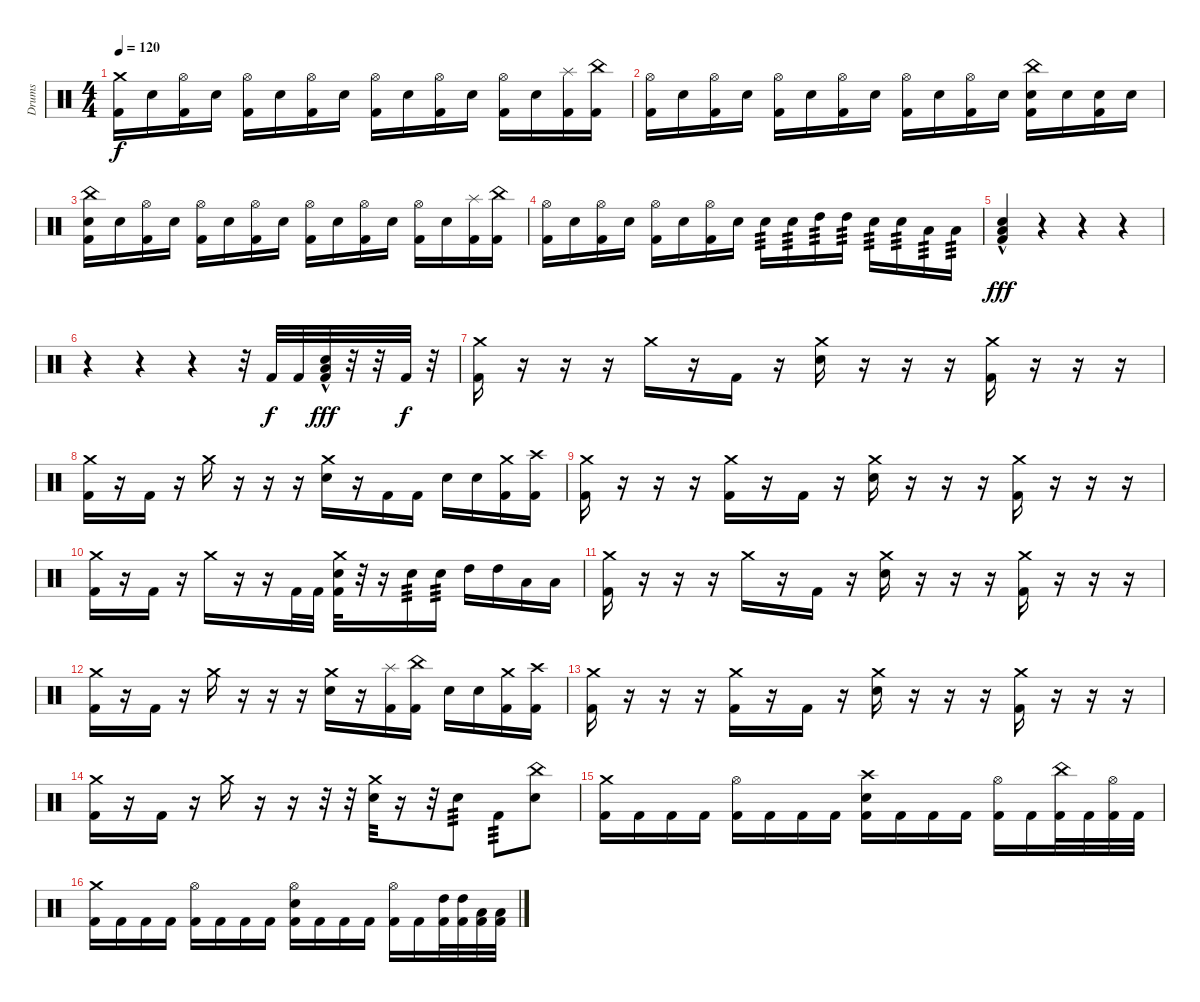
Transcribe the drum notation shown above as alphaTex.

\track ("Drums" "Drums") {instrument percussion}
\staff {score}
\articulation defaults
\ts (4 4)
\tempo 120
\clef neutral
\ks c
("Crash medium (hit)" "Kick (hit) 2").16{dy f} "Electric Snare (hit)".16 ("Hi-Hat (open)" "Kick (hit) 2").16 "Electric Snare (hit)".16 ("Hi-Hat (open)" "Kick (hit) 2").16 "Electric Snare (hit)".16 ("Hi-Hat (open)" "Kick (hit) 2").16 "Electric Snare (hit)".16 ("Hi-Hat (open)" "Kick (hit) 2").16 "Electric Snare (hit)".16 ("Hi-Hat (open)" "Kick (hit) 2").16 "Electric Snare (hit)".16 ("Hi-Hat (open)" "Kick (hit) 2").16 "Electric Snare (hit)".16 ("Splash (hit)" "Kick (hit) 2").16 ("China (hit)" "Kick (hit) 2").16 |
("Hi-Hat (open)" "Kick (hit) 2").16 "Electric Snare (hit)".16 ("Hi-Hat (open)" "Kick (hit) 2").16 "Electric Snare (hit)".16 ("Hi-Hat (open)" "Kick (hit) 2").16 "Electric Snare (hit)".16 ("Hi-Hat (open)" "Kick (hit) 2").16 "Electric Snare (hit)".16 ("Hi-Hat (open)" "Kick (hit) 2").16 "Electric Snare (hit)".16 ("Hi-Hat (open)" "Kick (hit) 2").16 "Electric Snare (hit)".16 ("China (hit)" "Electric Snare (hit)" "Kick (hit) 2").16 "Electric Snare (hit)".16 ("Electric Snare (hit)" "Kick (hit) 2").16 "Electric Snare (hit)".16 |
("China (hit)" "Electric Snare (hit)" "Kick (hit) 2").16 "Electric Snare (hit)".16 ("Hi-Hat (open)" "Kick (hit) 2").16 "Electric Snare (hit)".16 ("Hi-Hat (open)" "Kick (hit) 2").16 "Electric Snare (hit)".16 ("Hi-Hat (open)" "Kick (hit) 2").16 "Electric Snare (hit)".16 ("Hi-Hat (open)" "Kick (hit) 2").16 "Electric Snare (hit)".16 ("Hi-Hat (open)" "Kick (hit) 2").16 "Electric Snare (hit)".16 ("Hi-Hat (open)" "Kick (hit) 2").16 "Electric Snare (hit)".16 ("Splash (hit)" "Kick (hit) 2").16 ("China (hit)" "Kick (hit) 2").16 |
("Hi-Hat (open)" "Kick (hit) 2").16 "Electric Snare (hit)".16 ("Hi-Hat (open)" "Kick (hit) 2").16 "Electric Snare (hit)".16 ("Hi-Hat (open)" "Kick (hit) 2").16 "Electric Snare (hit)".16 ("Hi-Hat (open)" "Kick (hit) 2").16 "Electric Snare (hit)".16 "Electric Snare (hit)".16{tp 3} "Electric Snare (hit)".16{tp 3} "High Tom (hit)".16{tp 3} "High Tom (hit)".16{tp 3} "Electric Snare (hit)".16{tp 3} "Electric Snare (hit)".16{tp 3} "Low Tom (hit)".16{tp 3} "Low Tom (hit)".16{tp 3} |
("Electric Snare (hit)"{hac} "Low Tom (hit)"{hac} "Kick (hit) 2"{hac}).4{dy fff} r.4 r.4 r.4 |
r.4 r.4 r.4 r.32 "Kick (hit) 2".32{dy f} "Kick (hit) 2".32 ("Electric Snare (hit)"{hac} "Low Tom (hit)"{hac} "Kick (hit) 2"{hac}).32{dy fff} r.32 r.32 "Kick (hit) 2".32{dy f} r.32 |
("Crash medium (hit)" "Kick (hit) 2").16 r.16 r.16 r.16 "Crash medium (hit)".16 r.16 "Kick (hit) 2".16 r.16 ("Crash medium (hit)" "Electric Snare (hit)").16 r.16 r.16 r.16 ("Crash medium (hit)" "Kick (hit) 2").16 r.16 r.16 r.16 |
("Crash medium (hit)" "Kick (hit) 2").16 r.16 "Kick (hit) 2".16 r.16 "Crash medium (hit)".16 r.16 r.16 r.16 ("Crash medium (hit)" "Electric Snare (hit)").16 r.16 "Kick (hit) 2".16 "Kick (hit) 2".16 "Electric Snare (hit)".16 "Electric Snare (hit)".16 ("Crash medium (hit)" "Kick (hit) 2").16 ("Crash high (hit)" "Kick (hit) 2").16 |
("Crash medium (hit)" "Kick (hit) 2").16 r.16 r.16 r.16 ("Crash medium (hit)" "Kick (hit) 2").16 r.16 "Kick (hit) 2".16 r.16 ("Crash medium (hit)" "Electric Snare (hit)").16 r.16 r.16 r.16 ("Crash medium (hit)" "Kick (hit) 2").16 r.16 r.16 r.16 |
("Crash medium (hit)" "Kick (hit) 2").16 r.16 "Kick (hit) 2".16 r.16 "Crash medium (hit)".16 r.16 r.16 "Kick (hit) 2".32 "Kick (hit) 2".32 ("Crash medium (hit)" "Electric Snare (hit)" "Kick (hit) 2").32 r.32 r.16 "Electric Snare (hit)".16{tp 3} "Electric Snare (hit)".16{tp 3} "High Tom (hit)".16 "High Tom (hit)".16 "Low Tom (hit)".16 "Low Tom (hit)".16 |
("Crash medium (hit)" "Kick (hit) 2").16 r.16 r.16 r.16 "Crash medium (hit)".16 r.16 "Kick (hit) 2".16 r.16 ("Crash medium (hit)" "Electric Snare (hit)").16 r.16 r.16 r.16 ("Crash medium (hit)" "Kick (hit) 2").16 r.16 r.16 r.16 |
("Crash medium (hit)" "Kick (hit) 2").16 r.16 "Kick (hit) 2".16 r.16 "Crash medium (hit)".16 r.16 r.16 r.16 ("Crash medium (hit)" "Electric Snare (hit)").16 r.16 ("Splash (hit)" "Kick (hit) 2").16 ("China (hit)" "Kick (hit) 2").16 "Electric Snare (hit)".16 "Electric Snare (hit)".16 ("Crash medium (hit)" "Kick (hit) 2").16 ("Crash high (hit)" "Kick (hit) 2").16 |
("Crash medium (hit)" "Kick (hit) 2").16 r.16 r.16 r.16 ("Crash medium (hit)" "Kick (hit) 2").16 r.16 "Kick (hit) 2".16 r.16 ("Crash medium (hit)" "Electric Snare (hit)").16 r.16 r.16 r.16 ("Crash medium (hit)" "Kick (hit) 2").16 r.16 r.16 r.16 |
("Crash medium (hit)" "Kick (hit) 2").16 r.16 "Kick (hit) 2".16 r.16 "Crash medium (hit)".16 r.16 r.16 r.32 r.32 ("Crash medium (hit)" "Electric Snare (hit)").32 r.16 r.32 "Electric Snare (hit)".8{tp 3} "Kick (hit) 2".8{tp 3} ("China (hit)" "Electric Snare (hit)").8 |
("Crash medium (hit)" "Kick (hit) 2").16 "Kick (hit) 2".16 "Kick (hit) 2".16 "Kick (hit) 2".16 ("Hi-Hat (open)" "Kick (hit) 2").16 "Kick (hit) 2".16 "Kick (hit) 2".16 "Kick (hit) 2".16 ("Crash high (hit)" "Electric Snare (hit)" "Kick (hit) 2").16 "Kick (hit) 2".16 "Kick (hit) 2".16 "Kick (hit) 2".16 ("Hi-Hat (open)" "Kick (hit) 2").16 "Kick (hit) 2".16 ("China (hit)" "Kick (hit) 2").32 "Kick (hit) 2".32 ("Hi-Hat (open)" "Kick (hit) 2").32 "Kick (hit) 2".32 |
("Crash medium (hit)" "Kick (hit) 2").16 "Kick (hit) 2".16 "Kick (hit) 2".16 "Kick (hit) 2".16 ("Hi-Hat (open)" "Kick (hit) 2").16 "Kick (hit) 2".16 "Kick (hit) 2".16 "Kick (hit) 2".16 ("Hi-Hat (open)" "Electric Snare (hit)" "Kick (hit) 2").16 "Kick (hit) 2".16 "Kick (hit) 2".16 "Kick (hit) 2".16 ("Hi-Hat (open)" "Kick (hit) 2").16 "Kick (hit) 2".16 ("High Tom (hit)" "Kick (hit) 2").32 ("High Tom (hit)" "Kick (hit) 2").32 ("Low Tom (hit)" "Kick (hit) 2").32 ("Low Tom (hit)" "Kick (hit) 2").32
